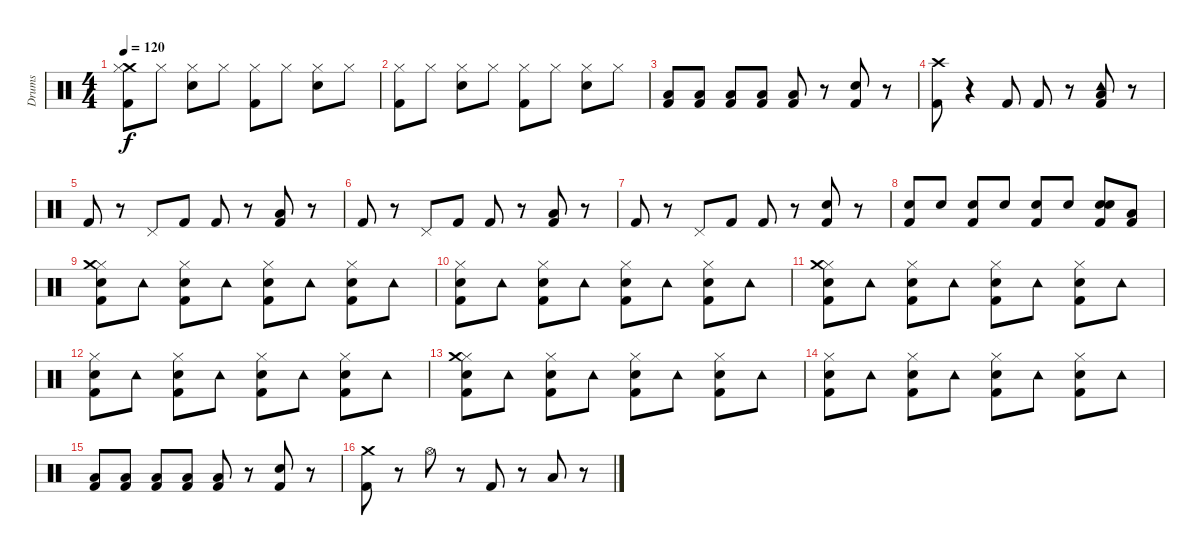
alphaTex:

\track ("Drums" "Drums") {instrument percussion}
\staff {score}
\articulation defaults
\ts (4 4)
\tempo 120
\clef neutral
\ks c
("Crash medium (hit)" "Hi-Hat (closed)" "Kick (hit) 2").8{dy f} "Hi-Hat (closed)".8 ("Hi-Hat (closed)" "Snare (hit) 2").8 "Hi-Hat (closed)".8 ("Hi-Hat (closed)" "Kick (hit) 2").8 "Hi-Hat (closed)".8 ("Hi-Hat (closed)" "Snare (hit) 2").8 "Hi-Hat (closed)".8 |
("Kick (hit) 2" "Hi-Hat (closed)").8 "Hi-Hat (closed)".8 ("Snare (hit) 2" "Hi-Hat (closed)").8 "Hi-Hat (closed)".8 ("Kick (hit) 2" "Hi-Hat (closed)").8 "Hi-Hat (closed)".8 ("Snare (hit) 2" "Hi-Hat (closed)").8 "Hi-Hat (closed)".8 |
("Low Tom (hit)" "Kick (hit) 2").8 ("Low Tom (hit)" "Kick (hit) 2").8 ("Low Tom (hit)" "Kick (hit) 2").8 ("Low Tom (hit)" "Kick (hit) 2").8 ("Low Tom (hit)" "Kick (hit) 2").8 r.8 ("Kick (hit) 2" "Snare (hit) 2").8 r.8 |
("Crash high (hit)" "Kick (hit) 2").8 r.4 "Kick (hit) 2".8 "Kick (hit) 2".8 r.8 ("Low Tom (hit)" "Kick (hit) 2" "Tambourine (hit)").8 r.8 |
"Kick (hit) 2".8 r.8 "Pedal Hi-Hat (hit)".8 "Kick (hit) 2".8 "Kick (hit) 2".8 r.8 ("Low Tom (hit)" "Kick (hit) 2").8 r.8 |
"Kick (hit) 2".8 r.8 "Pedal Hi-Hat (hit)".8 "Kick (hit) 2".8 "Kick (hit) 2".8 r.8 ("Kick (hit) 2" "Low Tom (hit)").8 r.8 |
"Kick (hit) 2".8 r.8 "Pedal Hi-Hat (hit)".8 "Kick (hit) 2".8 "Kick (hit) 2".8 r.8 ("Kick (hit) 2" "Snare (hit) 2").8 r.8 |
("Kick (hit) 2" "Snare (hit) 2").8 "Snare (hit) 2".8 ("Kick (hit) 2" "Snare (hit) 2").8 "Snare (hit) 2".8 ("Kick (hit) 2" "Snare (hit) 2").8 "Snare (hit) 2".8 ("Kick (hit) 2" "Snare (hit) 2" "Snare (hit) 2").8 ("Kick (hit) 2" "Low Tom (hit)").8 |
("Hi-Hat (closed)" "Snare (hit) 2" "Kick (hit) 2" "Crash medium (hit)").8 "Tambourine (hit)".8 ("Hi-Hat (closed)" "Snare (hit) 2" "Kick (hit) 2").8 "Tambourine (hit)".8 ("Hi-Hat (closed)" "Snare (hit) 2" "Kick (hit) 2").8 "Tambourine (hit)".8 ("Hi-Hat (closed)" "Snare (hit) 2" "Kick (hit) 2").8 "Tambourine (hit)".8 |
("Snare (hit) 2" "Hi-Hat (closed)" "Kick (hit) 2").8 "Tambourine (hit)".8 ("Snare (hit) 2" "Hi-Hat (closed)" "Kick (hit) 2").8 "Tambourine (hit)".8 ("Snare (hit) 2" "Hi-Hat (closed)" "Kick (hit) 2").8 "Tambourine (hit)".8 ("Hi-Hat (closed)" "Snare (hit) 2" "Kick (hit) 2").8 "Tambourine (hit)".8 |
("Hi-Hat (closed)" "Snare (hit) 2" "Kick (hit) 2" "Crash medium (hit)").8 "Tambourine (hit)".8 ("Hi-Hat (closed)" "Snare (hit) 2" "Kick (hit) 2").8 "Tambourine (hit)".8 ("Hi-Hat (closed)" "Snare (hit) 2" "Kick (hit) 2").8 "Tambourine (hit)".8 ("Hi-Hat (closed)" "Snare (hit) 2" "Kick (hit) 2").8 "Tambourine (hit)".8 |
("Snare (hit) 2" "Hi-Hat (closed)" "Kick (hit) 2").8 "Tambourine (hit)".8 ("Snare (hit) 2" "Hi-Hat (closed)" "Kick (hit) 2").8 "Tambourine (hit)".8 ("Snare (hit) 2" "Hi-Hat (closed)" "Kick (hit) 2").8 "Tambourine (hit)".8 ("Hi-Hat (closed)" "Snare (hit) 2" "Kick (hit) 2").8 "Tambourine (hit)".8 |
("Hi-Hat (closed)" "Snare (hit) 2" "Kick (hit) 2" "Crash medium (hit)").8 "Tambourine (hit)".8 ("Hi-Hat (closed)" "Snare (hit) 2" "Kick (hit) 2").8 "Tambourine (hit)".8 ("Hi-Hat (closed)" "Snare (hit) 2" "Kick (hit) 2").8 "Tambourine (hit)".8 ("Hi-Hat (closed)" "Snare (hit) 2" "Kick (hit) 2").8 "Tambourine (hit)".8 |
("Snare (hit) 2" "Hi-Hat (closed)" "Kick (hit) 2").8 "Tambourine (hit)".8 ("Snare (hit) 2" "Hi-Hat (closed)" "Kick (hit) 2").8 "Tambourine (hit)".8 ("Snare (hit) 2" "Hi-Hat (closed)" "Kick (hit) 2").8 "Tambourine (hit)".8 ("Hi-Hat (closed)" "Snare (hit) 2" "Kick (hit) 2").8 "Tambourine (hit)".8 |
("Low Tom (hit)" "Kick (hit) 2").8 ("Low Tom (hit)" "Kick (hit) 2").8 ("Low Tom (hit)" "Kick (hit) 2").8 ("Low Tom (hit)" "Kick (hit) 2").8 ("Low Tom (hit)" "Kick (hit) 2").8 r.8 ("Kick (hit) 2" "Snare (hit) 2").8 r.8 |
("Crash medium (hit)" "Kick (hit) 2").8 r.8 "Hi-Hat (open)".8 r.8 "Kick (hit) 2".8 r.8 "Low Floor Tom (hit)".8 r.8
